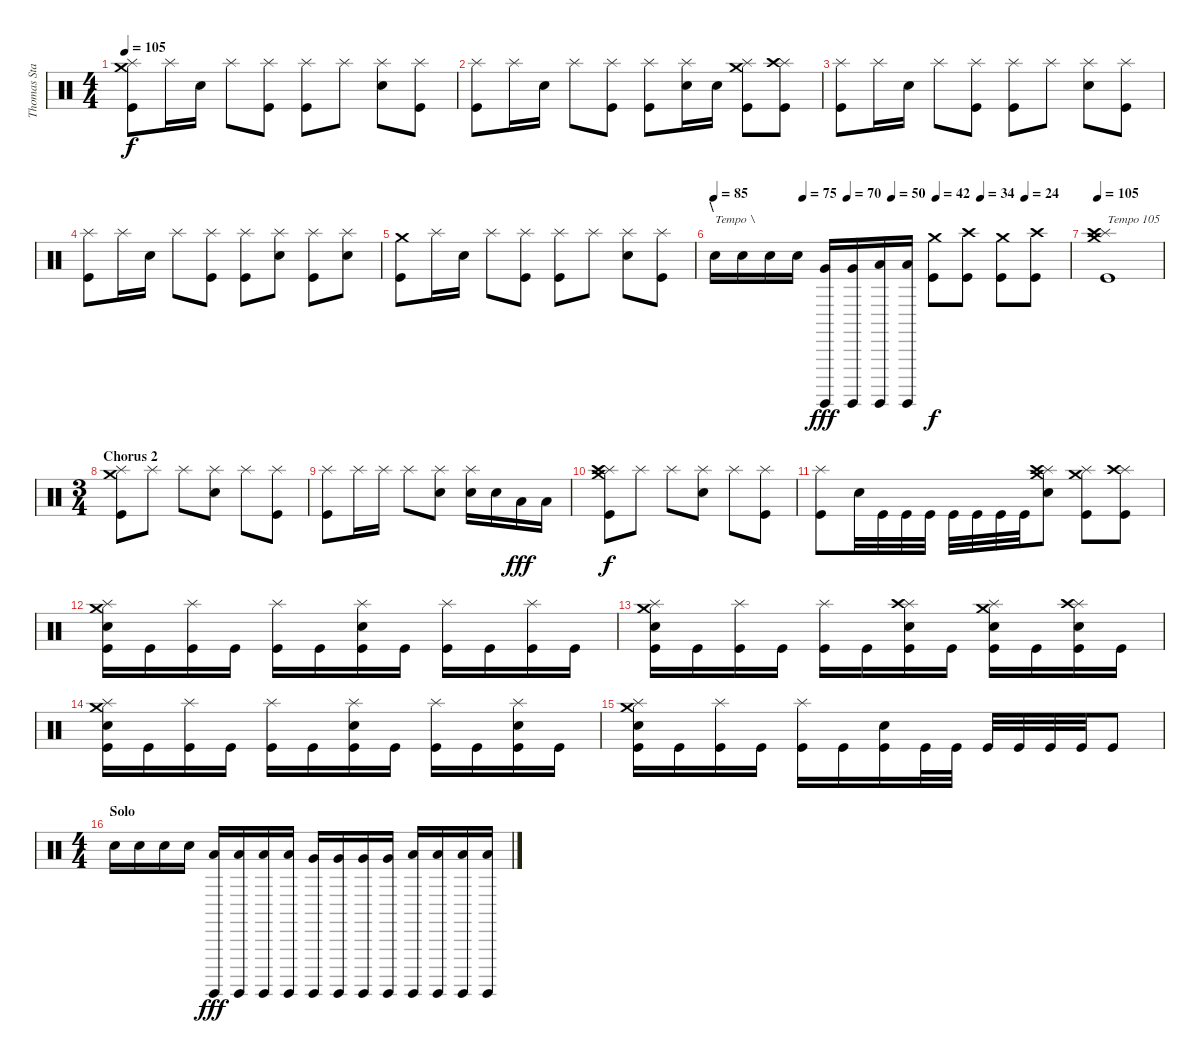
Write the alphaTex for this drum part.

\track ("Thomas Stauch" "Thomas Sta") {instrument percussion}
\staff {score}
\articulation defaults
\ts (4 4)
\tempo 105
\clef neutral
\ks c
("Crash medium (hit)" "Splash (hit)" "Kick (hit)").8{dy f} "Splash (hit)".16 "Electric Snare (hit)".16 "Splash (hit)".8 ("Splash (hit)" "Kick (hit)").8 ("Splash (hit)" "Kick (hit)").8 "Splash (hit)".8 ("Splash (hit)" "Electric Snare (hit)").8 ("Splash (hit)" "Kick (hit)").8 |
("Splash (hit)" "Kick (hit)").8 "Splash (hit)".16 "Electric Snare (hit)".16 "Splash (hit)".8 ("Splash (hit)" "Kick (hit)").8 ("Splash (hit)" "Kick (hit)").8 ("Splash (hit)" "Electric Snare (hit)").16 "Electric Snare (hit)".16 ("Crash medium (hit)" "Splash (hit)" "Kick (hit)").8 ("Splash (hit)" "Crash high (hit)" "Kick (hit)").8 |
("Splash (hit)" "Kick (hit)").8 "Splash (hit)".16 "Electric Snare (hit)".16 "Splash (hit)".8 ("Splash (hit)" "Kick (hit)").8 ("Splash (hit)" "Kick (hit)").8 "Splash (hit)".8 ("Splash (hit)" "Electric Snare (hit)").8 ("Splash (hit)" "Kick (hit)").8 |
("Splash (hit)" "Kick (hit)").8 "Splash (hit)".16 "Electric Snare (hit)".16 "Splash (hit)".8 ("Splash (hit)" "Kick (hit)").8 ("Splash (hit)" "Kick (hit)").8 ("Splash (hit)" "Electric Snare (hit)").8 ("Splash (hit)" "Kick (hit)").8 ("Splash (hit)" "Electric Snare (hit)").8 |
("Crash medium (hit)" "Kick (hit)").8 "Splash (hit)".16 "Electric Snare (hit)".16 "Splash (hit)".8 ("Splash (hit)" "Kick (hit)").8 ("Splash (hit)" "Kick (hit)").8 "Splash (hit)".8 ("Splash (hit)" "Electric Snare (hit)").8 ("Splash (hit)" "Kick (hit)").8 |
\section ("" "\\")
\tempo 85
\tempo (75 0.25)
\tempo (70 0.375)
\tempo (50 0.5)
\tempo (42 0.625)
\tempo (34 0.75)
\tempo (24 0.875)
"Electric Snare (hit)".16{txt "Tempo \\"} "Electric Snare (hit)".16 "Electric Snare (hit)".16 "Electric Snare (hit)".16 ("Surdo (hit)" "Very Low Tom (hit)").16{dy fff} ("Surdo (hit)" "Very Low Tom (hit)").16 ("Surdo (hit)" "Low Floor Tom (hit)").16 ("Surdo (hit)" "Low Floor Tom (hit)").16 ("Crash medium (hit)" "Kick (hit)").8{dy f} ("Crash high (hit)" "Kick (hit)").8 ("Crash medium (hit)" "Kick (hit)").8 ("Crash high (hit)" "Kick (hit)").8 |
\tempo 105
("Crash medium (hit)" "Splash (hit)" "Crash high (hit)" "Kick (hit)").1{txt "Tempo 105"} |
\ts (3 4)
\section ("" "Chorus 2")
("Crash medium (hit)" "Splash (hit)" "Kick (hit)").8 "Splash (hit)".8 "Splash (hit)".8 ("Splash (hit)" "Electric Snare (hit)").8 "Splash (hit)".8 ("Splash (hit)" "Kick (hit)").8 |
("Splash (hit)" "Kick (hit)").8 "Splash (hit)".16 "Splash (hit)".16 "Splash (hit)".8 ("Splash (hit)" "Electric Snare (hit)").8 ("Splash (hit)" "Electric Snare (hit)").16 "Electric Snare (hit)".16 "Low Floor Tom (hit)".16{dy fff} "Low Floor Tom (hit)".16 |
("Crash medium (hit)" "Splash (hit)" "Crash high (hit)" "Kick (hit)").8{dy f} "Splash (hit)".8 "Splash (hit)".8 ("Splash (hit)" "Electric Snare (hit)").8 "Splash (hit)".8 ("Splash (hit)" "Kick (hit)").8 |
("Splash (hit)" "Kick (hit)").8 "Electric Snare (hit)".32 "Kick (hit)".32 "Kick (hit)".32 "Kick (hit)".32 "Kick (hit)".32 "Kick (hit)".32 "Kick (hit)".32 "Kick (hit)".32 ("Crash medium (hit)" "Splash (hit)" "Crash high (hit)" "Electric Snare (hit)").8 ("Crash medium (hit)" "Splash (hit)" "Kick (hit)").8 ("Splash (hit)" "Crash high (hit)" "Kick (hit)").8 |
("Crash medium (hit)" "Splash (hit)" "Electric Snare (hit)" "Kick (hit)").16 "Kick (hit)".16 ("Splash (hit)" "Kick (hit)").16 "Kick (hit)".16 ("Splash (hit)" "Kick (hit)").16 "Kick (hit)".16 ("Splash (hit)" "Electric Snare (hit)" "Kick (hit)").16 "Kick (hit)".16 ("Splash (hit)" "Kick (hit)").16 "Kick (hit)".16 ("Splash (hit)" "Kick (hit)").16 "Kick (hit)".16 |
("Crash medium (hit)" "Splash (hit)" "Electric Snare (hit)" "Kick (hit)").16 "Kick (hit)".16 ("Splash (hit)" "Kick (hit)").16 "Kick (hit)".16 ("Splash (hit)" "Kick (hit)").16 "Kick (hit)".16 ("Splash (hit)" "Crash high (hit)" "Electric Snare (hit)" "Kick (hit)").16 "Kick (hit)".16 ("Crash medium (hit)" "Splash (hit)" "Electric Snare (hit)" "Kick (hit)").16 "Kick (hit)".16 ("Splash (hit)" "Crash high (hit)" "Electric Snare (hit)" "Kick (hit)").16 "Kick (hit)".16 |
("Crash medium (hit)" "Splash (hit)" "Electric Snare (hit)" "Kick (hit)").16 "Kick (hit)".16 ("Splash (hit)" "Kick (hit)").16 "Kick (hit)".16 ("Splash (hit)" "Kick (hit)").16 "Kick (hit)".16 ("Splash (hit)" "Electric Snare (hit)" "Kick (hit)").16 "Kick (hit)".16 ("Splash (hit)" "Kick (hit)").16 "Kick (hit)".16 ("Splash (hit)" "Electric Snare (hit)" "Kick (hit)").16 "Kick (hit)".16 |
("Crash medium (hit)" "Splash (hit)" "Electric Snare (hit)" "Kick (hit)").16 "Kick (hit)".16 ("Splash (hit)" "Kick (hit)").16 "Kick (hit)".16 ("Splash (hit)" "Kick (hit)").16 "Kick (hit)".16 ("Electric Snare (hit)" "Kick (hit)").16 "Kick (hit)".32 "Kick (hit)".32 "Kick (hit)".32 "Kick (hit)".32 "Kick (hit)".32 "Kick (hit)".32 "Kick (hit)".8 |
\ts (4 4)
\section ("" "Solo")
"Electric Snare (hit)".16 "Electric Snare (hit)".16 "Electric Snare (hit)".16 "Electric Snare (hit)".16 ("Surdo (hit)" "Low Tom (hit)").16{dy fff} ("Surdo (hit)" "Low Tom (hit)").16 ("Surdo (hit)" "Low Tom (hit)").16 ("Surdo (hit)" "Low Tom (hit)").16 ("Surdo (hit)" "Very Low Tom (hit)").16 ("Surdo (hit)" "Very Low Tom (hit)").16 ("Surdo (hit)" "Very Low Tom (hit)").16 ("Surdo (hit)" "Very Low Tom (hit)").16 ("Surdo (hit)" "Low Floor Tom (hit)").16 ("Surdo (hit)" "Low Floor Tom (hit)").16 ("Surdo (hit)" "Low Floor Tom (hit)").16 ("Surdo (hit)" "Low Floor Tom (hit)").16
